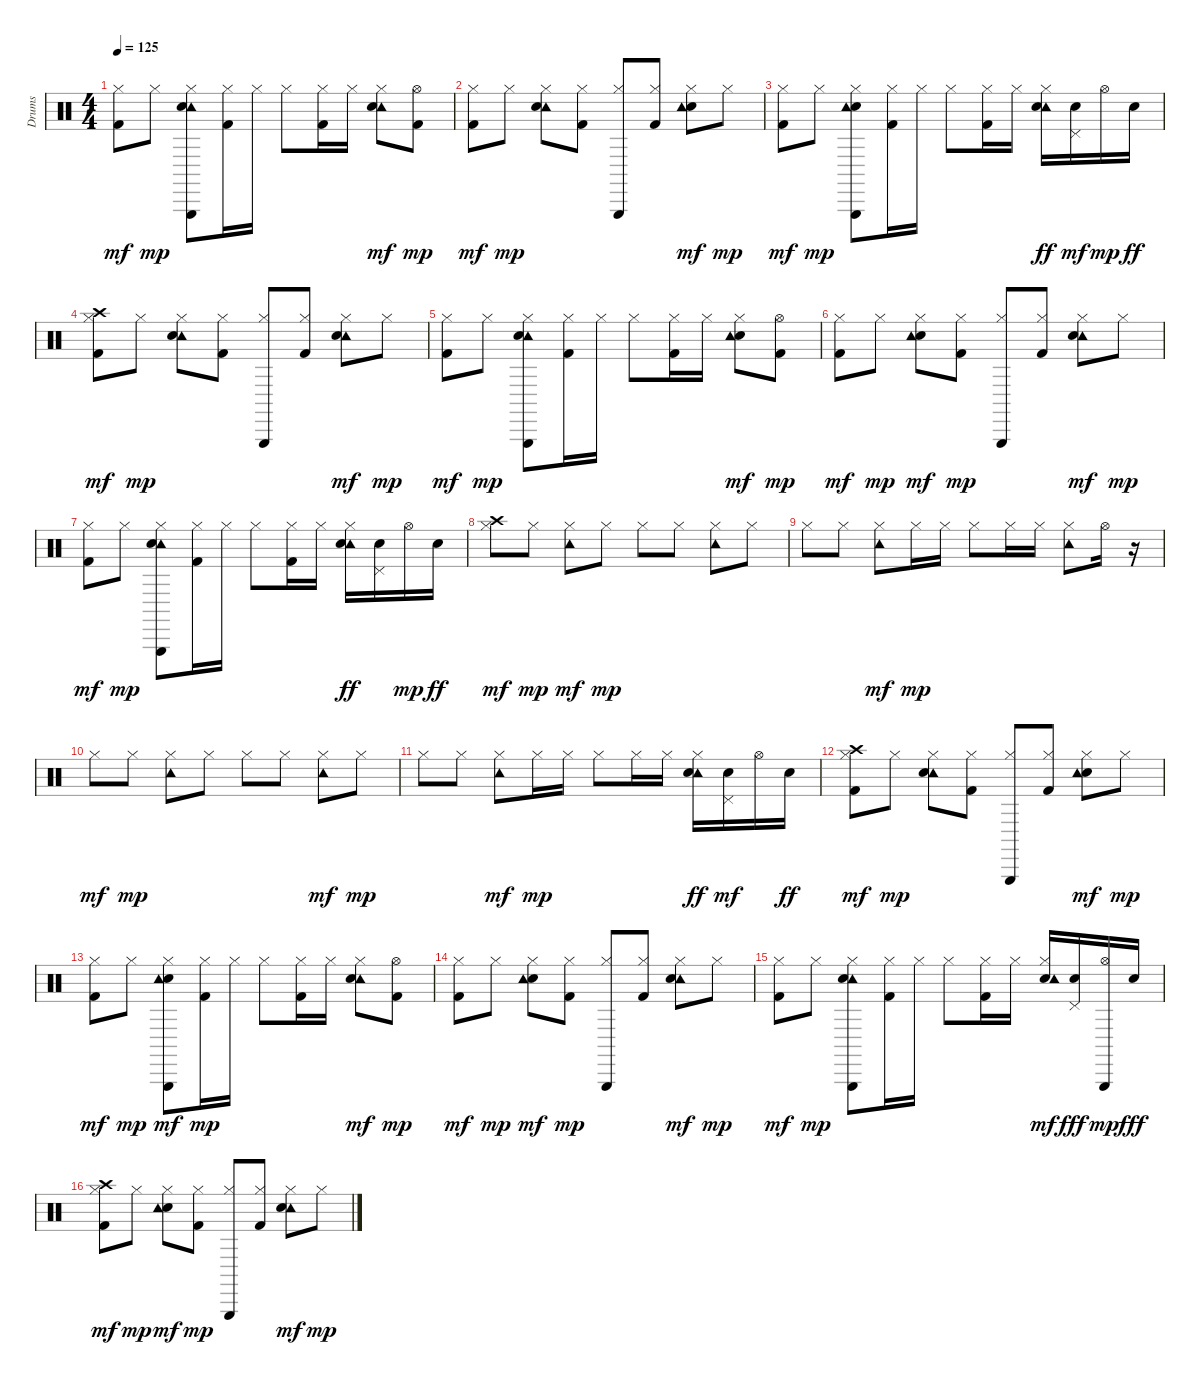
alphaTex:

\track ("Drums" "Drums") {instrument percussion}
\staff {score}
\articulation defaults
\ts (4 4)
\tempo 125
\clef neutral
\ks c
("Kick (hit) 2" "Hi-Hat (closed)").8{dy mf} "Hi-Hat (closed)".8{dy mp} ("Triangle (hit)" "Tambourine (hit)" "Electric Snare (hit)" "Hi-Hat (closed)").8 ("Kick (hit) 2" "Hi-Hat (closed)").16 "Hi-Hat (closed)".16 "Hi-Hat (closed)".8 ("Kick (hit) 2" "Hi-Hat (closed)").16 "Hi-Hat (closed)".16 ("Tambourine (hit)" "Electric Snare (hit)" "Hi-Hat (closed)").8{dy mf} ("Hi-Hat (open)" "Kick (hit) 2").8{dy mp} |
("Kick (hit) 2" "Hi-Hat (closed)").8{dy mf} "Hi-Hat (closed)".8{dy mp} ("Tambourine (hit)" "Electric Snare (hit)" "Hi-Hat (closed)").8 ("Kick (hit) 2" "Hi-Hat (closed)").8 ("Hi-Hat (closed)" "Triangle (hit)").8 ("Hi-Hat (closed)" "Kick (hit) 2").8 ("Hi-Hat (closed)" "Electric Snare (hit)" "Tambourine (hit)").8{dy mf} "Hi-Hat (closed)".8{dy mp} |
("Kick (hit) 2" "Hi-Hat (closed)").8{dy mf} "Hi-Hat (closed)".8{dy mp} ("Hi-Hat (closed)" "Electric Snare (hit)" "Tambourine (hit)" "Triangle (hit)").8 ("Kick (hit) 2" "Hi-Hat (closed)").16 "Hi-Hat (closed)".16 "Hi-Hat (closed)".8 ("Hi-Hat (closed)" "Kick (hit) 2").16 "Hi-Hat (closed)".16 ("Hi-Hat (closed)" "Tambourine (hit)" "Electric Snare (hit)").16{dy ff} ("Electric Snare (hit)" "Pedal Hi-Hat (hit)").16{dy mf} "Hi-Hat (open)".16{dy mp} "Electric Snare (hit)".16{dy ff} |
("Crash high (hit)" "Hi-Hat (closed)" "Kick (hit) 2").8{dy mf} "Hi-Hat (closed)".8{dy mp} ("Tambourine (hit)" "Electric Snare (hit)" "Hi-Hat (closed)").8 ("Hi-Hat (closed)" "Kick (hit) 2").8 ("Triangle (hit)" "Hi-Hat (closed)").8 ("Hi-Hat (closed)" "Kick (hit) 2").8 ("Tambourine (hit)" "Electric Snare (hit)" "Hi-Hat (closed)").8{dy mf} "Hi-Hat (closed)".8{dy mp} |
("Hi-Hat (closed)" "Kick (hit) 2").8{dy mf} "Hi-Hat (closed)".8{dy mp} ("Triangle (hit)" "Tambourine (hit)" "Electric Snare (hit)" "Hi-Hat (closed)").8 ("Hi-Hat (closed)" "Kick (hit) 2").16 "Hi-Hat (closed)".16 "Hi-Hat (closed)".8 ("Kick (hit) 2" "Hi-Hat (closed)").16 "Hi-Hat (closed)".16 ("Hi-Hat (closed)" "Electric Snare (hit)" "Tambourine (hit)").8{dy mf} ("Kick (hit) 2" "Hi-Hat (open)").8{dy mp} |
("Hi-Hat (closed)" "Kick (hit) 2").8{dy mf} "Hi-Hat (closed)".8{dy mp} ("Hi-Hat (closed)" "Electric Snare (hit)" "Tambourine (hit)").8{dy mf} ("Hi-Hat (closed)" "Kick (hit) 2").8{dy mp} ("Hi-Hat (closed)" "Triangle (hit)").8 ("Kick (hit) 2" "Hi-Hat (closed)").8 ("Tambourine (hit)" "Electric Snare (hit)" "Hi-Hat (closed)").8{dy mf} "Hi-Hat (closed)".8{dy mp} |
("Kick (hit) 2" "Hi-Hat (closed)").8{dy mf} "Hi-Hat (closed)".8{dy mp} ("Triangle (hit)" "Tambourine (hit)" "Electric Snare (hit)" "Hi-Hat (closed)").8 ("Kick (hit) 2" "Hi-Hat (closed)").16 "Hi-Hat (closed)".16 "Hi-Hat (closed)".8 ("Kick (hit) 2" "Hi-Hat (closed)").16 "Hi-Hat (closed)".16 ("Hi-Hat (closed)" "Tambourine (hit)" "Electric Snare (hit)").16{dy ff} ("Pedal Hi-Hat (hit)" "Electric Snare (hit)").16 "Hi-Hat (open)".16{dy mp} "Electric Snare (hit)".16{dy ff} |
("Hi-Hat (closed)" "Crash high (hit)").8{dy mf} "Hi-Hat (closed)".8{dy mp} ("Hi-Hat (closed)" "Tambourine (hit)").8{dy mf} "Hi-Hat (closed)".8{dy mp} "Hi-Hat (closed)".8 "Hi-Hat (closed)".8 ("Tambourine (hit)" "Hi-Hat (closed)").8 "Hi-Hat (closed)".8 |
"Hi-Hat (closed)".8 "Hi-Hat (closed)".8 ("Hi-Hat (closed)" "Tambourine (hit)").8{dy mf} "Hi-Hat (closed)".16{dy mp} "Hi-Hat (closed)".16 "Hi-Hat (closed)".8 "Hi-Hat (closed)".16 "Hi-Hat (closed)".16 ("Tambourine (hit)" "Hi-Hat (closed)").8 "Hi-Hat (open)".16 r.16 |
"Hi-Hat (closed)".8{dy mf} "Hi-Hat (closed)".8{dy mp} ("Tambourine (hit)" "Hi-Hat (closed)").8 "Hi-Hat (closed)".8 "Hi-Hat (closed)".8 "Hi-Hat (closed)".8 ("Hi-Hat (closed)" "Tambourine (hit)").8{dy mf} "Hi-Hat (closed)".8{dy mp} |
"Hi-Hat (closed)".8 "Hi-Hat (closed)".8 ("Hi-Hat (closed)" "Tambourine (hit)").8{dy mf} "Hi-Hat (closed)".16{dy mp} "Hi-Hat (closed)".16 "Hi-Hat (closed)".8 "Hi-Hat (closed)".16 "Hi-Hat (closed)".16 ("Hi-Hat (closed)" "Tambourine (hit)" "Electric Snare (hit)").16{dy ff} ("Electric Snare (hit)" "Pedal Hi-Hat (hit)").16{dy mf} "Hi-Hat (open)".16 "Electric Snare (hit)".16{dy ff} |
("Crash high (hit)" "Kick (hit) 2" "Hi-Hat (closed)").8{dy mf} "Hi-Hat (closed)".8{dy mp} ("Tambourine (hit)" "Electric Snare (hit)" "Hi-Hat (closed)").8 ("Kick (hit) 2" "Hi-Hat (closed)").8 ("Hi-Hat (closed)" "Triangle (hit)").8 ("Hi-Hat (closed)" "Kick (hit) 2").8 ("Hi-Hat (closed)" "Electric Snare (hit)" "Tambourine (hit)").8{dy mf} "Hi-Hat (closed)".8{dy mp} |
("Hi-Hat (closed)" "Kick (hit) 2").8{dy mf} "Hi-Hat (closed)".8{dy mp} ("Triangle (hit)" "Hi-Hat (closed)" "Electric Snare (hit)" "Tambourine (hit)").8{dy mf} ("Hi-Hat (closed)" "Kick (hit) 2").16{dy mp} "Hi-Hat (closed)".16 "Hi-Hat (closed)".8 ("Hi-Hat (closed)" "Kick (hit) 2").16 "Hi-Hat (closed)".16 ("Tambourine (hit)" "Electric Snare (hit)" "Hi-Hat (closed)").8{dy mf} ("Kick (hit) 2" "Hi-Hat (open)").8{dy mp} |
("Hi-Hat (closed)" "Kick (hit) 2").8{dy mf} "Hi-Hat (closed)".8{dy mp} ("Hi-Hat (closed)" "Electric Snare (hit)" "Tambourine (hit)").8{dy mf} ("Hi-Hat (closed)" "Kick (hit) 2").8{dy mp} ("Hi-Hat (closed)" "Triangle (hit)").8 ("Hi-Hat (closed)" "Kick (hit) 2").8 ("Tambourine (hit)" "Electric Snare (hit)" "Hi-Hat (closed)").8{dy mf} "Hi-Hat (closed)".8{dy mp} |
("Hi-Hat (closed)" "Kick (hit) 2").8{dy mf} "Hi-Hat (closed)".8{dy mp} ("Tambourine (hit)" "Electric Snare (hit)" "Hi-Hat (closed)" "Triangle (hit)").8 ("Hi-Hat (closed)" "Kick (hit) 2").16 "Hi-Hat (closed)".16 "Hi-Hat (closed)".8 ("Kick (hit) 2" "Hi-Hat (closed)").16 "Hi-Hat (closed)".16 ("Hi-Hat (closed)" "Electric Snare (hit)" "Tambourine (hit)").16{dy mf} ("Electric Snare (hit)" "Pedal Hi-Hat (hit)").16{dy fff} ("Hi-Hat (open)" "Triangle (hit)").16{dy mp} "Electric Snare (hit)".16{dy fff} |
("Crash high (hit)" "Kick (hit) 2" "Hi-Hat (closed)").8{dy mf} "Hi-Hat (closed)".8{dy mp} ("Hi-Hat (closed)" "Electric Snare (hit)" "Tambourine (hit)").8{dy mf} ("Kick (hit) 2" "Hi-Hat (closed)").8{dy mp} ("Triangle (hit)" "Hi-Hat (closed)").8 ("Kick (hit) 2" "Hi-Hat (closed)").8 ("Tambourine (hit)" "Electric Snare (hit)" "Hi-Hat (closed)").8{dy mf} "Hi-Hat (closed)".8{dy mp}
